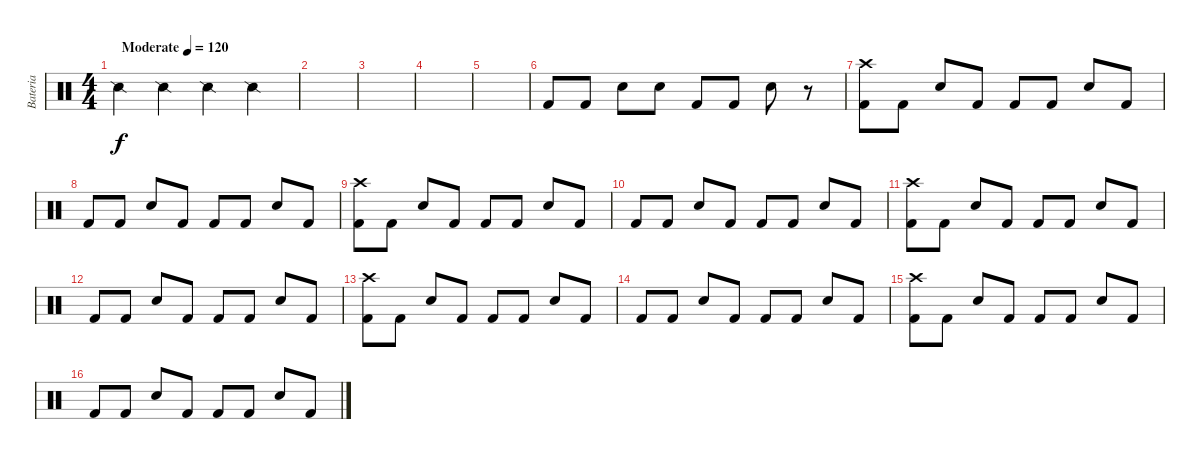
\track ("Bateria" "Bateria") {instrument percussion}
\staff {score}
\articulation defaults
\ts (4 4)
\tempo (120 "Moderate")
\clef neutral
\ks c "Snare (side stick) 2".4{dy f} "Snare (side stick) 2".4 "Snare (side stick) 2".4 "Snare (side stick) 2".4
|
|
|
|
|
"Kick (hit) 2".8 "Kick (hit) 2".8 "Snare (hit) 2".8 "Snare (hit) 2".8 "Kick (hit) 2".8 "Kick (hit) 2".8 "Snare (hit) 2".8 r.8 |
("Kick (hit) 2" "Crash high (hit)").8 "Kick (hit) 2".8 "Snare (hit) 2".8 "Kick (hit) 2".8 "Kick (hit) 2".8 "Kick (hit) 2".8 "Snare (hit) 2".8 "Kick (hit) 2".8 |
"Kick (hit) 2".8 "Kick (hit) 2".8 "Snare (hit) 2".8 "Kick (hit) 2".8 "Kick (hit) 2".8 "Kick (hit) 2".8 "Snare (hit) 2".8 "Kick (hit) 2".8 |
("Kick (hit) 2" "Crash high (hit)").8 "Kick (hit) 2".8 "Snare (hit) 2".8 "Kick (hit) 2".8 "Kick (hit) 2".8 "Kick (hit) 2".8 "Snare (hit) 2".8 "Kick (hit) 2".8 |
"Kick (hit) 2".8 "Kick (hit) 2".8 "Snare (hit) 2".8 "Kick (hit) 2".8 "Kick (hit) 2".8 "Kick (hit) 2".8 "Snare (hit) 2".8 "Kick (hit) 2".8 |
("Kick (hit) 2" "Crash high (hit)").8 "Kick (hit) 2".8 "Snare (hit) 2".8 "Kick (hit) 2".8 "Kick (hit) 2".8 "Kick (hit) 2".8 "Snare (hit) 2".8 "Kick (hit) 2".8 |
"Kick (hit) 2".8 "Kick (hit) 2".8 "Snare (hit) 2".8 "Kick (hit) 2".8 "Kick (hit) 2".8 "Kick (hit) 2".8 "Snare (hit) 2".8 "Kick (hit) 2".8 |
("Kick (hit) 2" "Crash high (hit)").8 "Kick (hit) 2".8 "Snare (hit) 2".8 "Kick (hit) 2".8 "Kick (hit) 2".8 "Kick (hit) 2".8 "Snare (hit) 2".8 "Kick (hit) 2".8 |
"Kick (hit) 2".8 "Kick (hit) 2".8 "Snare (hit) 2".8 "Kick (hit) 2".8 "Kick (hit) 2".8 "Kick (hit) 2".8 "Snare (hit) 2".8 "Kick (hit) 2".8 |
("Kick (hit) 2" "Crash high (hit)").8 "Kick (hit) 2".8 "Snare (hit) 2".8 "Kick (hit) 2".8 "Kick (hit) 2".8 "Kick (hit) 2".8 "Snare (hit) 2".8 "Kick (hit) 2".8 |
"Kick (hit) 2".8 "Kick (hit) 2".8 "Snare (hit) 2".8 "Kick (hit) 2".8 "Kick (hit) 2".8 "Kick (hit) 2".8 "Snare (hit) 2".8 "Kick (hit) 2".8
